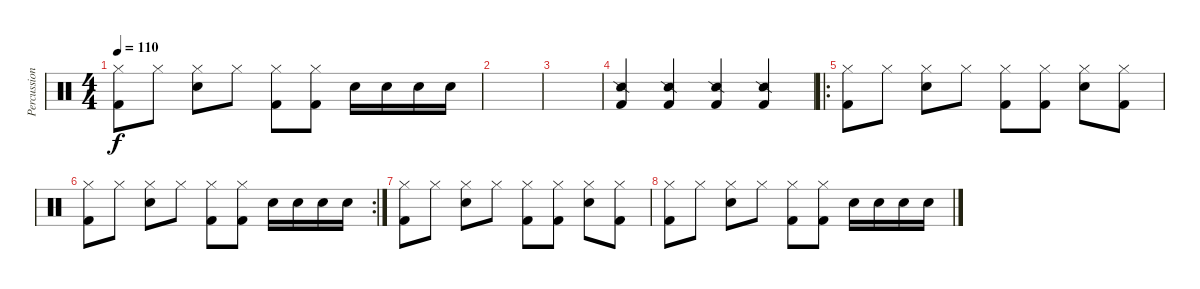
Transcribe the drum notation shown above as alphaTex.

\track ("Percussions" "Percussion") {instrument percussion}
\staff {score}
\articulation defaults
\ts (4 4)
\tempo 110
\clef neutral
\ks c
("Kick (hit) 2" "Hi-Hat (closed)").8{dy f} "Hi-Hat (closed)".8 ("Electric Snare (hit)" "Hi-Hat (closed)").8 "Hi-Hat (closed)".8 ("Kick (hit) 2" "Hi-Hat (closed)").8 ("Kick (hit) 2" "Hi-Hat (closed)").8 "Electric Snare (hit)".16 "Electric Snare (hit)".16 "Electric Snare (hit)".16 "Electric Snare (hit)".16 |
|
|
("Snare (side stick) 2" "Kick (hit) 2").4 ("Snare (side stick) 2" "Kick (hit) 2").4 ("Snare (side stick) 2" "Kick (hit) 2").4 ("Snare (side stick) 2" "Kick (hit) 2").4 |
\ro
("Kick (hit) 2" "Hi-Hat (closed)").8 "Hi-Hat (closed)".8 ("Electric Snare (hit)" "Hi-Hat (closed)").8 "Hi-Hat (closed)".8 ("Kick (hit) 2" "Hi-Hat (closed)").8 ("Kick (hit) 2" "Hi-Hat (closed)").8 ("Electric Snare (hit)" "Hi-Hat (closed)").8 ("Kick (hit) 2" "Hi-Hat (closed)").8 |
\rc 2
("Kick (hit) 2" "Hi-Hat (closed)").8 "Hi-Hat (closed)".8 ("Electric Snare (hit)" "Hi-Hat (closed)").8 "Hi-Hat (closed)".8 ("Kick (hit) 2" "Hi-Hat (closed)").8 ("Kick (hit) 2" "Hi-Hat (closed)").8 "Electric Snare (hit)".16 "Electric Snare (hit)".16 "Electric Snare (hit)".16 "Electric Snare (hit)".16 |
("Kick (hit) 2" "Hi-Hat (closed)").8 "Hi-Hat (closed)".8 ("Electric Snare (hit)" "Hi-Hat (closed)").8 "Hi-Hat (closed)".8 ("Kick (hit) 2" "Hi-Hat (closed)").8 ("Kick (hit) 2" "Hi-Hat (closed)").8 ("Electric Snare (hit)" "Hi-Hat (closed)").8 ("Kick (hit) 2" "Hi-Hat (closed)").8 |
("Kick (hit) 2" "Hi-Hat (closed)").8 "Hi-Hat (closed)".8 ("Electric Snare (hit)" "Hi-Hat (closed)").8 "Hi-Hat (closed)".8 ("Kick (hit) 2" "Hi-Hat (closed)").8 ("Kick (hit) 2" "Hi-Hat (closed)").8 "Electric Snare (hit)".16 "Electric Snare (hit)".16 "Electric Snare (hit)".16 "Electric Snare (hit)".16
